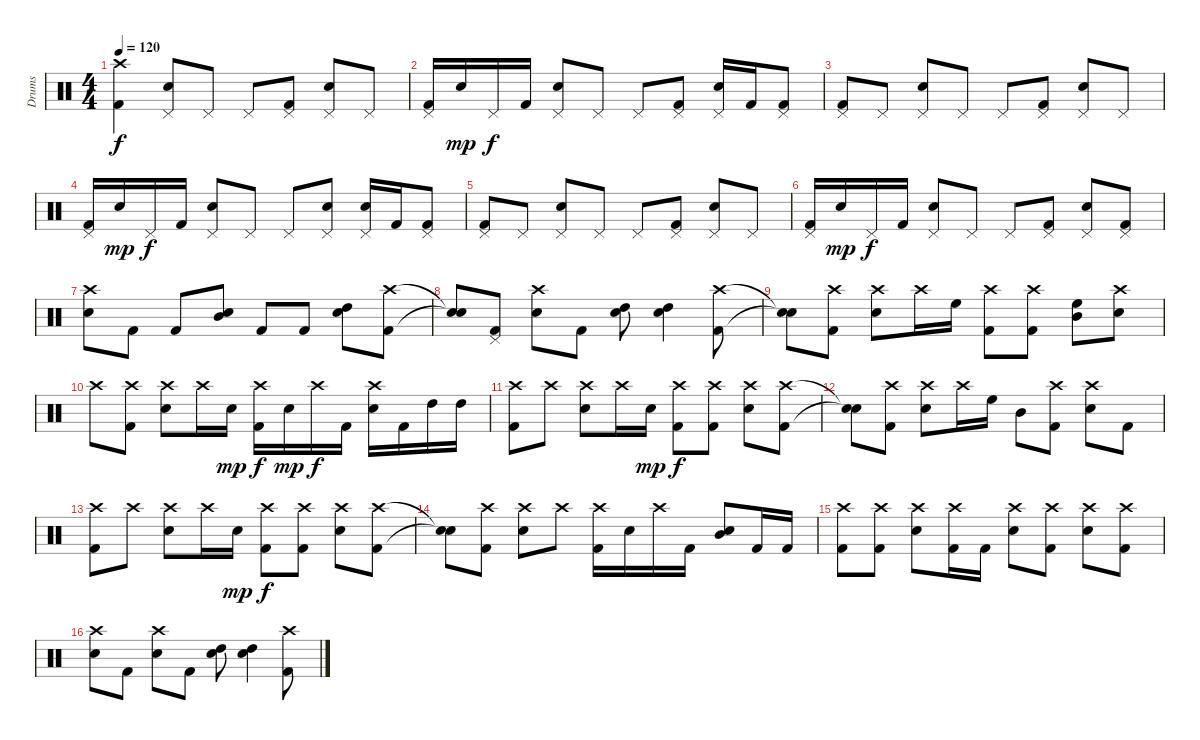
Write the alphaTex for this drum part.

\track ("Drums" "Drums") {instrument percussion}
\staff {score}
\articulation defaults
\ts (4 4)
\tempo 120
\clef neutral
\ks c
("Crash high (hit)" "Kick (hit) 2").4{dy f} ("Pedal Hi-Hat (hit)" "Electric Snare (hit)").8 "Pedal Hi-Hat (hit)".8 "Pedal Hi-Hat (hit)".8 ("Pedal Hi-Hat (hit)" "Kick (hit) 2").8 ("Pedal Hi-Hat (hit)" "Electric Snare (hit)").8 "Pedal Hi-Hat (hit)".8 |
("Pedal Hi-Hat (hit)" "Kick (hit) 2").16 "Electric Snare (hit)".16{dy mp} "Pedal Hi-Hat (hit)".16{dy f} "Kick (hit) 2".16 ("Pedal Hi-Hat (hit)" "Electric Snare (hit)").8 "Pedal Hi-Hat (hit)".8 "Pedal Hi-Hat (hit)".8 ("Pedal Hi-Hat (hit)" "Kick (hit) 2").8 ("Pedal Hi-Hat (hit)" "Electric Snare (hit)").16 "Kick (hit) 2".16 ("Pedal Hi-Hat (hit)" "Kick (hit) 2").8 |
("Pedal Hi-Hat (hit)" "Kick (hit) 2").8 "Pedal Hi-Hat (hit)".8 ("Pedal Hi-Hat (hit)" "Electric Snare (hit)").8 "Pedal Hi-Hat (hit)".8 "Pedal Hi-Hat (hit)".8 ("Pedal Hi-Hat (hit)" "Kick (hit) 2").8 ("Pedal Hi-Hat (hit)" "Electric Snare (hit)").8 "Pedal Hi-Hat (hit)".8 |
("Pedal Hi-Hat (hit)" "Kick (hit) 2").16 "Electric Snare (hit)".16{dy mp} "Pedal Hi-Hat (hit)".16{dy f} "Kick (hit) 2".16 ("Pedal Hi-Hat (hit)" "Electric Snare (hit)").8 "Pedal Hi-Hat (hit)".8 "Pedal Hi-Hat (hit)".8 ("Pedal Hi-Hat (hit)" "Electric Snare (hit)").8 ("Pedal Hi-Hat (hit)" "Electric Snare (hit)").16 "Kick (hit) 2".16 ("Pedal Hi-Hat (hit)" "Kick (hit) 2").8 |
("Pedal Hi-Hat (hit)" "Kick (hit) 2").8 "Pedal Hi-Hat (hit)".8 ("Pedal Hi-Hat (hit)" "Electric Snare (hit)").8 "Pedal Hi-Hat (hit)".8 "Pedal Hi-Hat (hit)".8 ("Pedal Hi-Hat (hit)" "Kick (hit) 2").8 ("Pedal Hi-Hat (hit)" "Electric Snare (hit)").8 "Pedal Hi-Hat (hit)".8 |
("Pedal Hi-Hat (hit)" "Kick (hit) 2").16 "Electric Snare (hit)".16{dy mp} "Pedal Hi-Hat (hit)".16{dy f} "Kick (hit) 2".16 ("Pedal Hi-Hat (hit)" "Electric Snare (hit)").8 "Pedal Hi-Hat (hit)".8 "Pedal Hi-Hat (hit)".8 ("Pedal Hi-Hat (hit)" "Kick (hit) 2").8 ("Pedal Hi-Hat (hit)" "Electric Snare (hit)").8 ("Pedal Hi-Hat (hit)" "Kick (hit) 2").8 |
("Crash high (hit)" "Electric Snare (hit)").8 "Kick (hit) 2".8 "Kick (hit) 2".8 ("Mid Tom (hit)" "Electric Snare (hit)").8 "Kick (hit) 2".8 "Kick (hit) 2".8 ("Electric Snare (hit)" "High Tom (hit)").8 ("Crash high (hit)" "Kick (hit) 2").8 |
("Snare (hit)"{t} "Snare (hit)"{t}).8 ("Pedal Hi-Hat (hit)" "Kick (hit) 2").8 ("Crash high (hit)" "Electric Snare (hit)").8 "Kick (hit) 2".8 ("Electric Snare (hit)" "High Tom (hit)").8 ("Electric Snare (hit)" "High Tom (hit)").4 ("Crash high (hit)" "Kick (hit) 2").8 |
("Snare (hit)"{t} "Snare (hit)"{t}).8 ("Crash high (hit)" "Kick (hit) 2").8 ("Crash high (hit)" "Electric Snare (hit)").8 "Crash high (hit)".16 "High Floor Tom (hit)".16 ("Crash high (hit)" "Kick (hit) 2").8 ("Crash high (hit)" "Kick (hit) 2").8 ("High Floor Tom (hit)" "Mid Tom (hit)").8 ("Crash high (hit)" "Electric Snare (hit)").8 |
"Crash high (hit)".8 ("Crash high (hit)" "Kick (hit) 2").8 ("Crash high (hit)" "Electric Snare (hit)").8 "Crash high (hit)".16 "Electric Snare (hit)".16{dy mp} ("Crash high (hit)" "Kick (hit) 2").16{dy f} "Electric Snare (hit)".16{dy mp} "Crash high (hit)".16{dy f} "Kick (hit) 2".16 ("Crash high (hit)" "Electric Snare (hit)").16 "Kick (hit) 2".16 "High Tom (hit)".16 "High Tom (hit)".16 |
("Crash high (hit)" "Kick (hit) 2").8 "Crash high (hit)".8 ("Crash high (hit)" "Electric Snare (hit)").8 "Crash high (hit)".16 "Electric Snare (hit)".16{dy mp} ("Crash high (hit)" "Kick (hit) 2").8{dy f} ("Crash high (hit)" "Kick (hit) 2").8 ("Crash high (hit)" "Electric Snare (hit)").8 ("Crash high (hit)" "Kick (hit) 2").8 |
("Snare (hit)"{t} "Snare (hit)"{t}).8 ("Crash high (hit)" "Kick (hit) 2").8 ("Crash high (hit)" "Electric Snare (hit)").8 "Crash high (hit)".16 "High Floor Tom (hit)".16 "Mid Tom (hit)".8 ("Crash high (hit)" "Kick (hit) 2").8 ("Crash high (hit)" "Electric Snare (hit)").8 "Kick (hit) 2".8 |
("Crash high (hit)" "Kick (hit) 2").8 "Crash high (hit)".8 ("Crash high (hit)" "Electric Snare (hit)").8 "Crash high (hit)".16 "Electric Snare (hit)".16{dy mp} ("Crash high (hit)" "Kick (hit) 2").8{dy f} ("Crash high (hit)" "Kick (hit) 2").8 ("Crash high (hit)" "Electric Snare (hit)").8 ("Crash high (hit)" "Kick (hit) 2").8 |
("Snare (hit)"{t} "Snare (hit)"{t}).8 ("Crash high (hit)" "Kick (hit) 2").8 ("Crash high (hit)" "Electric Snare (hit)").8 "Crash high (hit)".8 ("Crash high (hit)" "Kick (hit) 2").16 "Electric Snare (hit)".16 "Crash high (hit)".16 "Kick (hit) 2".16 ("Mid Tom (hit)" "Electric Snare (hit)").8 "Kick (hit) 2".16 "Kick (hit) 2".16 |
("Crash high (hit)" "Kick (hit) 2").8 ("Crash high (hit)" "Kick (hit) 2").8 ("Crash high (hit)" "Electric Snare (hit)").8 ("Crash high (hit)" "Kick (hit) 2").16 "Kick (hit) 2".16 ("Crash high (hit)" "Electric Snare (hit)").8 ("Crash high (hit)" "Kick (hit) 2").8 ("Crash high (hit)" "Electric Snare (hit)").8 ("Crash high (hit)" "Kick (hit) 2").8 |
("Crash high (hit)" "Electric Snare (hit)").8 "Kick (hit) 2".8 ("Crash high (hit)" "Electric Snare (hit)").8 "Kick (hit) 2".8 ("Electric Snare (hit)" "High Tom (hit)").8 ("Electric Snare (hit)" "High Tom (hit)").4 ("Crash high (hit)" "Kick (hit) 2").8
